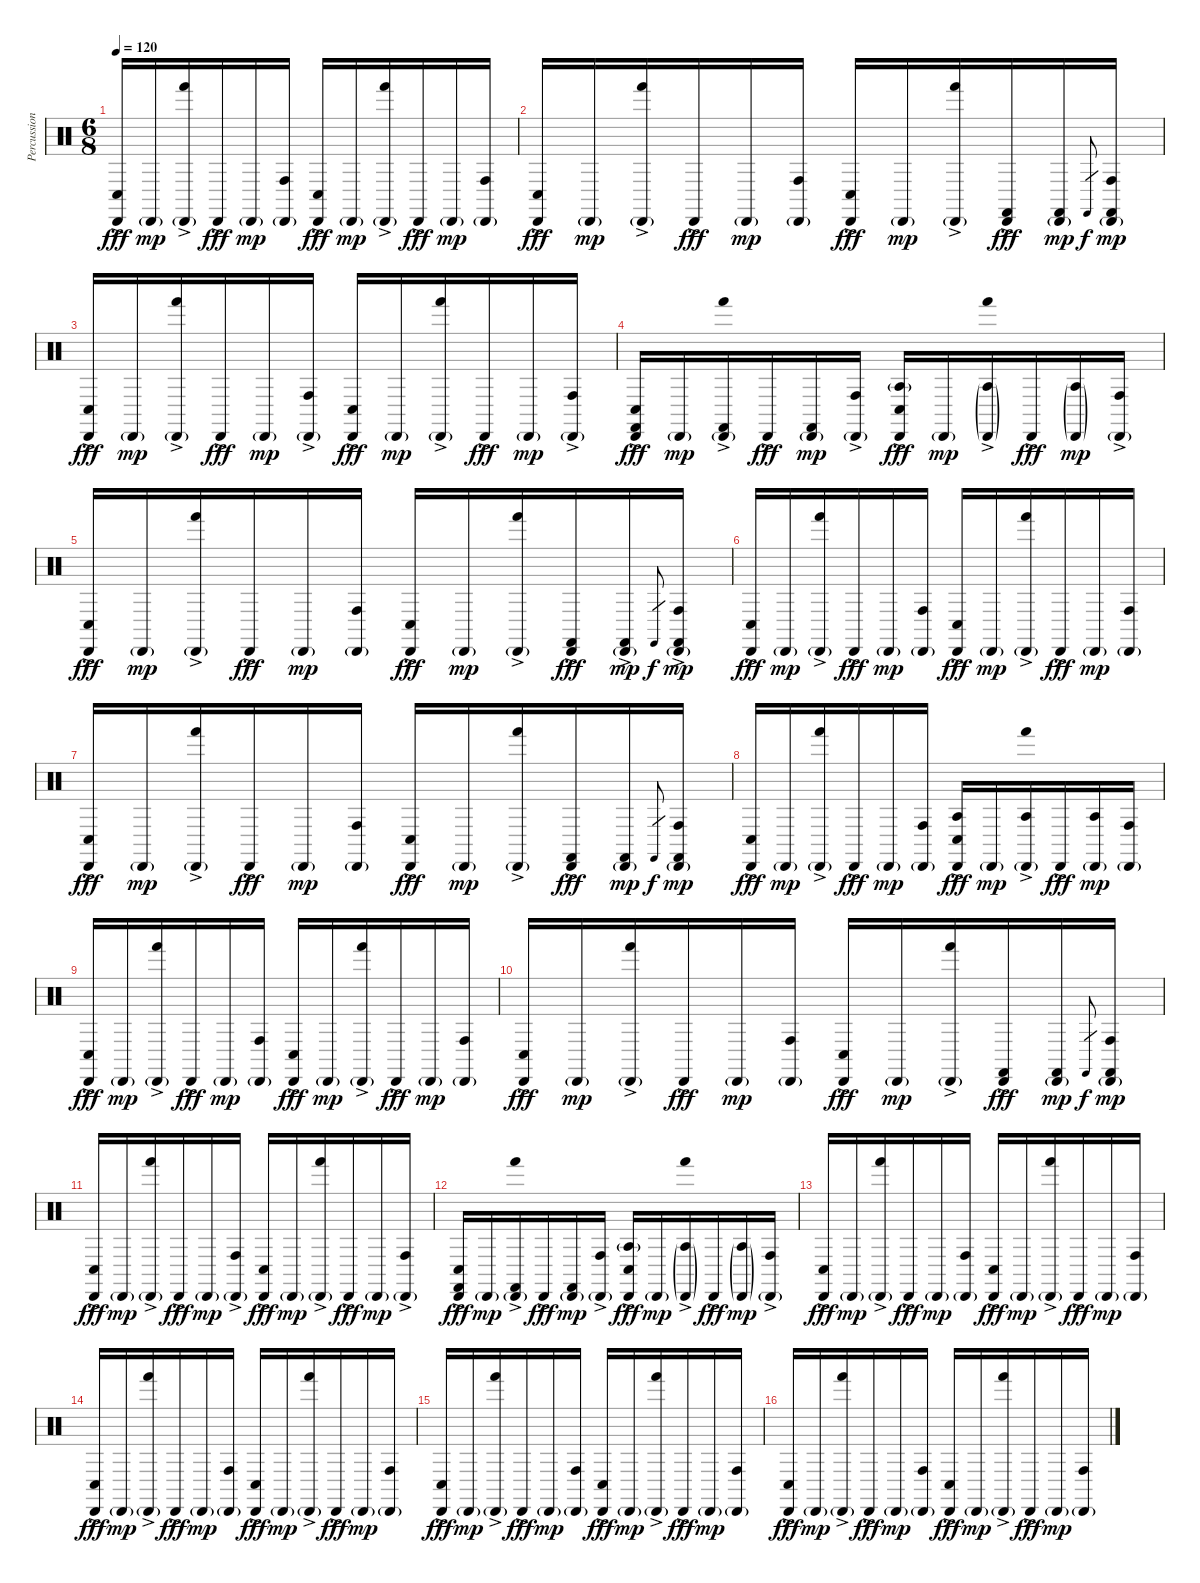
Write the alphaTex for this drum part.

\track ("Percussion" "Percussion") {instrument percussion}
\staff {score}
\articulation defaults
\ts (6 8)
\tempo 120
\clef neutral
\ks c
("Conga low (hit)"{ac} "Cabasa (hit)"{ac}).16{dy fff} "Cabasa (hit)"{g}.16{dy mp} ("Hand (hit)"{ac} "Cabasa (hit)"{g}).16 "Cabasa (hit)"{ac}.16{dy fff} "Cabasa (hit)"{g}.16{dy mp} ("Conga high (hit)" "Cabasa (hit)"{g}).16 ("Conga low (hit)"{ac} "Cabasa (hit)"{ac}).16{dy fff} "Cabasa (hit)"{g}.16{dy mp} ("Hand (hit)"{ac} "Cabasa (hit)"{g}).16 "Cabasa (hit)"{ac}.16{dy fff} "Cabasa (hit)"{g}.16{dy mp} ("Conga high (hit)" "Cabasa (hit)"{g}).16 |
("Conga low (hit)"{ac} "Cabasa (hit)"{ac}).16{dy fff} "Cabasa (hit)"{g}.16{dy mp} ("Hand (hit)"{ac} "Cabasa (hit)"{g}).16 "Cabasa (hit)"{ac}.16{dy fff} "Cabasa (hit)"{g}.16{dy mp} ("Conga high (hit)" "Cabasa (hit)"{g}).16 ("Conga low (hit)"{ac} "Cabasa (hit)"{ac}).16{dy fff} "Cabasa (hit)"{g}.16{dy mp} ("Hand (hit)"{ac} "Cabasa (hit)"{g}).16 ("Castanets (hit)"{ac} "Cabasa (hit)"{ac}).16{dy fff} ("Castanets (hit)" "Cabasa (hit)"{g}).16{dy mp} "Castanets (hit)".8{gr dy f} ("Castanets (hit)" "Conga high (hit)" "Cabasa (hit)"{g}).16{dy mp} |
("Conga low (hit)"{ac} "Cabasa (hit)"{ac}).16{dy fff} "Cabasa (hit)"{g}.16{dy mp} ("Hand (hit)"{ac} "Cabasa (hit)"{g}).16 "Cabasa (hit)"{ac}.16{dy fff} "Cabasa (hit)"{g}.16{dy mp} ("Conga high (hit)"{ac} "Cabasa (hit)"{g}).16 ("Conga low (hit)"{ac} "Cabasa (hit)"{ac}).16{dy fff} "Cabasa (hit)"{g}.16{dy mp} ("Hand (hit)"{ac} "Cabasa (hit)"{g}).16 "Cabasa (hit)"{ac}.16{dy fff} "Cabasa (hit)"{g}.16{dy mp} ("Conga high (hit)"{ac} "Cabasa (hit)"{g}).16 |
("Castanets (hit)" "Conga low (hit)"{ac} "Cabasa (hit)"{ac}).16{dy fff} "Cabasa (hit)"{g}.16{dy mp} ("Castanets (hit)" "Hand (hit)"{ac} "Cabasa (hit)"{g}).16 "Cabasa (hit)"{ac}.16{dy fff} ("Castanets (hit)" "Cabasa (hit)"{g}).16{dy mp} ("Conga high (hit)"{ac} "Cabasa (hit)"{g}).16 ("Agogo tow (hit)"{g} "Conga low (hit)"{ac} "Cabasa (hit)"{ac}).16{dy fff} "Cabasa (hit)"{g}.16{dy mp} ("Agogo tow (hit)"{g} "Hand (hit)"{ac} "Cabasa (hit)"{g}).16 "Cabasa (hit)"{ac}.16{dy fff} ("Agogo tow (hit)"{g} "Cabasa (hit)"{g}).16{dy mp} ("Conga high (hit)"{ac} "Cabasa (hit)"{g}).16 |
("Conga low (hit)"{ac} "Cabasa (hit)"{ac}).16{dy fff} "Cabasa (hit)"{g}.16{dy mp} ("Hand (hit)"{ac} "Cabasa (hit)"{g}).16 "Cabasa (hit)"{ac}.16{dy fff} "Cabasa (hit)"{g}.16{dy mp} ("Conga high (hit)" "Cabasa (hit)"{g}).16 ("Conga low (hit)"{ac} "Cabasa (hit)"{ac}).16{dy fff} "Cabasa (hit)"{g}.16{dy mp} ("Hand (hit)"{ac} "Cabasa (hit)"{g}).16 ("Castanets (hit)" "Cabasa (hit)"{ac}).16{dy fff} ("Castanets (hit)"{ac} "Cabasa (hit)"{g}).16{dy mp} "Castanets (hit)".8{gr dy f} ("Castanets (hit)"{ac} "Conga high (hit)" "Cabasa (hit)"{g}).16{dy mp} |
("Conga low (hit)"{ac} "Cabasa (hit)"{ac}).16{dy fff} "Cabasa (hit)"{g}.16{dy mp} ("Hand (hit)"{ac} "Cabasa (hit)"{g}).16 "Cabasa (hit)"{ac}.16{dy fff} "Cabasa (hit)"{g}.16{dy mp} ("Conga high (hit)" "Cabasa (hit)"{g}).16 ("Conga low (hit)"{ac} "Cabasa (hit)"{ac}).16{dy fff} "Cabasa (hit)"{g}.16{dy mp} ("Hand (hit)"{ac} "Cabasa (hit)"{g}).16 "Cabasa (hit)"{ac}.16{dy fff} "Cabasa (hit)"{g}.16{dy mp} ("Conga high (hit)" "Cabasa (hit)"{g}).16 |
("Conga low (hit)"{ac} "Cabasa (hit)"{ac}).16{dy fff} "Cabasa (hit)"{g}.16{dy mp} ("Hand (hit)"{ac} "Cabasa (hit)"{g}).16 "Cabasa (hit)"{ac}.16{dy fff} "Cabasa (hit)"{g}.16{dy mp} ("Conga high (hit)" "Cabasa (hit)"{g}).16 ("Conga low (hit)"{ac} "Cabasa (hit)"{ac}).16{dy fff} "Cabasa (hit)"{g}.16{dy mp} ("Hand (hit)"{ac} "Cabasa (hit)"{g}).16 ("Castanets (hit)" "Cabasa (hit)"{ac}).16{dy fff} ("Castanets (hit)" "Cabasa (hit)"{g}).16{dy mp} "Castanets (hit)".8{gr dy f} ("Castanets (hit)" "Conga high (hit)" "Cabasa (hit)"{g}).16{dy mp} |
("Conga low (hit)"{ac} "Cabasa (hit)"{ac}).16{dy fff} "Cabasa (hit)"{g}.16{dy mp} ("Hand (hit)"{ac} "Cabasa (hit)"{g}).16 "Cabasa (hit)"{ac}.16{dy fff} "Cabasa (hit)"{g}.16{dy mp} ("Conga high (hit)" "Cabasa (hit)"{g}).16 ("Agogo tow (hit)" "Conga low (hit)"{ac} "Cabasa (hit)"{ac}).16{dy fff} "Cabasa (hit)"{g}.16{dy mp} ("Agogo tow (hit)" "Hand (hit)"{ac} "Cabasa (hit)"{g}).16 "Cabasa (hit)"{ac}.16{dy fff} ("Agogo tow (hit)" "Cabasa (hit)"{g}).16{dy mp} ("Conga high (hit)" "Cabasa (hit)"{g}).16 |
("Conga low (hit)"{ac} "Cabasa (hit)"{ac}).16{dy fff} "Cabasa (hit)"{g}.16{dy mp} ("Hand (hit)"{ac} "Cabasa (hit)"{g}).16 "Cabasa (hit)"{ac}.16{dy fff} "Cabasa (hit)"{g}.16{dy mp} ("Conga high (hit)" "Cabasa (hit)"{g}).16 ("Conga low (hit)"{ac} "Cabasa (hit)"{ac}).16{dy fff} "Cabasa (hit)"{g}.16{dy mp} ("Hand (hit)"{ac} "Cabasa (hit)"{g}).16 "Cabasa (hit)"{ac}.16{dy fff} "Cabasa (hit)"{g}.16{dy mp} ("Conga high (hit)" "Cabasa (hit)"{g}).16 |
("Conga low (hit)"{ac} "Cabasa (hit)"{ac}).16{dy fff} "Cabasa (hit)"{g}.16{dy mp} ("Hand (hit)"{ac} "Cabasa (hit)"{g}).16 "Cabasa (hit)"{ac}.16{dy fff} "Cabasa (hit)"{g}.16{dy mp} ("Conga high (hit)" "Cabasa (hit)"{g}).16 ("Conga low (hit)"{ac} "Cabasa (hit)"{ac}).16{dy fff} "Cabasa (hit)"{g}.16{dy mp} ("Hand (hit)"{ac} "Cabasa (hit)"{g}).16 ("Castanets (hit)"{ac} "Cabasa (hit)"{ac}).16{dy fff} ("Castanets (hit)" "Cabasa (hit)"{g}).16{dy mp} "Castanets (hit)".8{gr dy f} ("Castanets (hit)" "Conga high (hit)" "Cabasa (hit)"{g}).16{dy mp} |
("Conga low (hit)"{ac} "Cabasa (hit)"{ac}).16{dy fff} "Cabasa (hit)"{g}.16{dy mp} ("Hand (hit)"{ac} "Cabasa (hit)"{g}).16 "Cabasa (hit)"{ac}.16{dy fff} "Cabasa (hit)"{g}.16{dy mp} ("Conga high (hit)"{ac} "Cabasa (hit)"{g}).16 ("Conga low (hit)"{ac} "Cabasa (hit)"{ac}).16{dy fff} "Cabasa (hit)"{g}.16{dy mp} ("Hand (hit)"{ac} "Cabasa (hit)"{g}).16 "Cabasa (hit)"{ac}.16{dy fff} "Cabasa (hit)"{g}.16{dy mp} ("Conga high (hit)"{ac} "Cabasa (hit)"{g}).16 |
("Castanets (hit)" "Conga low (hit)"{ac} "Cabasa (hit)"{ac}).16{dy fff} "Cabasa (hit)"{g}.16{dy mp} ("Castanets (hit)" "Hand (hit)"{ac} "Cabasa (hit)"{g}).16 "Cabasa (hit)"{ac}.16{dy fff} ("Castanets (hit)" "Cabasa (hit)"{g}).16{dy mp} ("Conga high (hit)"{ac} "Cabasa (hit)"{g}).16 ("Agogo tow (hit)"{g} "Conga low (hit)"{ac} "Cabasa (hit)"{ac}).16{dy fff} "Cabasa (hit)"{g}.16{dy mp} ("Agogo tow (hit)"{g} "Hand (hit)"{ac} "Cabasa (hit)"{g}).16 "Cabasa (hit)"{ac}.16{dy fff} ("Agogo tow (hit)"{g} "Cabasa (hit)"{g}).16{dy mp} ("Conga high (hit)"{ac} "Cabasa (hit)"{g}).16 |
("Conga low (hit)"{ac} "Cabasa (hit)"{ac}).16{dy fff} "Cabasa (hit)"{g}.16{dy mp} ("Hand (hit)"{ac} "Cabasa (hit)"{g}).16 "Cabasa (hit)"{ac}.16{dy fff} "Cabasa (hit)"{g}.16{dy mp} ("Conga high (hit)" "Cabasa (hit)"{g}).16 ("Conga low (hit)"{ac} "Cabasa (hit)"{ac}).16{dy fff} "Cabasa (hit)"{g}.16{dy mp} ("Hand (hit)"{ac} "Cabasa (hit)"{g}).16 "Cabasa (hit)"{ac}.16{dy fff} "Cabasa (hit)"{g}.16{dy mp} ("Conga high (hit)" "Cabasa (hit)"{g}).16 |
("Conga low (hit)"{ac} "Cabasa (hit)"{ac}).16{dy fff} "Cabasa (hit)"{g}.16{dy mp} ("Hand (hit)"{ac} "Cabasa (hit)"{g}).16 "Cabasa (hit)"{ac}.16{dy fff} "Cabasa (hit)"{g}.16{dy mp} ("Conga high (hit)" "Cabasa (hit)"{g}).16 ("Conga low (hit)"{ac} "Cabasa (hit)"{ac}).16{dy fff} "Cabasa (hit)"{g}.16{dy mp} ("Hand (hit)"{ac} "Cabasa (hit)"{g}).16 "Cabasa (hit)"{ac}.16{dy fff} "Cabasa (hit)"{g}.16{dy mp} ("Conga high (hit)" "Cabasa (hit)"{g}).16 |
("Conga low (hit)"{ac} "Cabasa (hit)"{ac}).16{dy fff} "Cabasa (hit)"{g}.16{dy mp} ("Hand (hit)"{ac} "Cabasa (hit)"{g}).16 "Cabasa (hit)"{ac}.16{dy fff} "Cabasa (hit)"{g}.16{dy mp} ("Conga high (hit)" "Cabasa (hit)"{g}).16 ("Conga low (hit)"{ac} "Cabasa (hit)"{ac}).16{dy fff} "Cabasa (hit)"{g}.16{dy mp} ("Hand (hit)"{ac} "Cabasa (hit)"{g}).16 "Cabasa (hit)"{ac}.16{dy fff} "Cabasa (hit)"{g}.16{dy mp} ("Conga high (hit)" "Cabasa (hit)"{g}).16 |
("Conga low (hit)"{ac} "Cabasa (hit)"{ac}).16{dy fff} "Cabasa (hit)"{g}.16{dy mp} ("Hand (hit)"{ac} "Cabasa (hit)"{g}).16 "Cabasa (hit)"{ac}.16{dy fff} "Cabasa (hit)"{g}.16{dy mp} ("Conga high (hit)" "Cabasa (hit)"{g}).16 ("Conga low (hit)"{ac} "Cabasa (hit)"{ac}).16{dy fff} "Cabasa (hit)"{g}.16{dy mp} ("Hand (hit)"{ac} "Cabasa (hit)"{g}).16 "Cabasa (hit)"{ac}.16{dy fff} "Cabasa (hit)"{g}.16{dy mp} ("Conga high (hit)" "Cabasa (hit)"{g}).16
